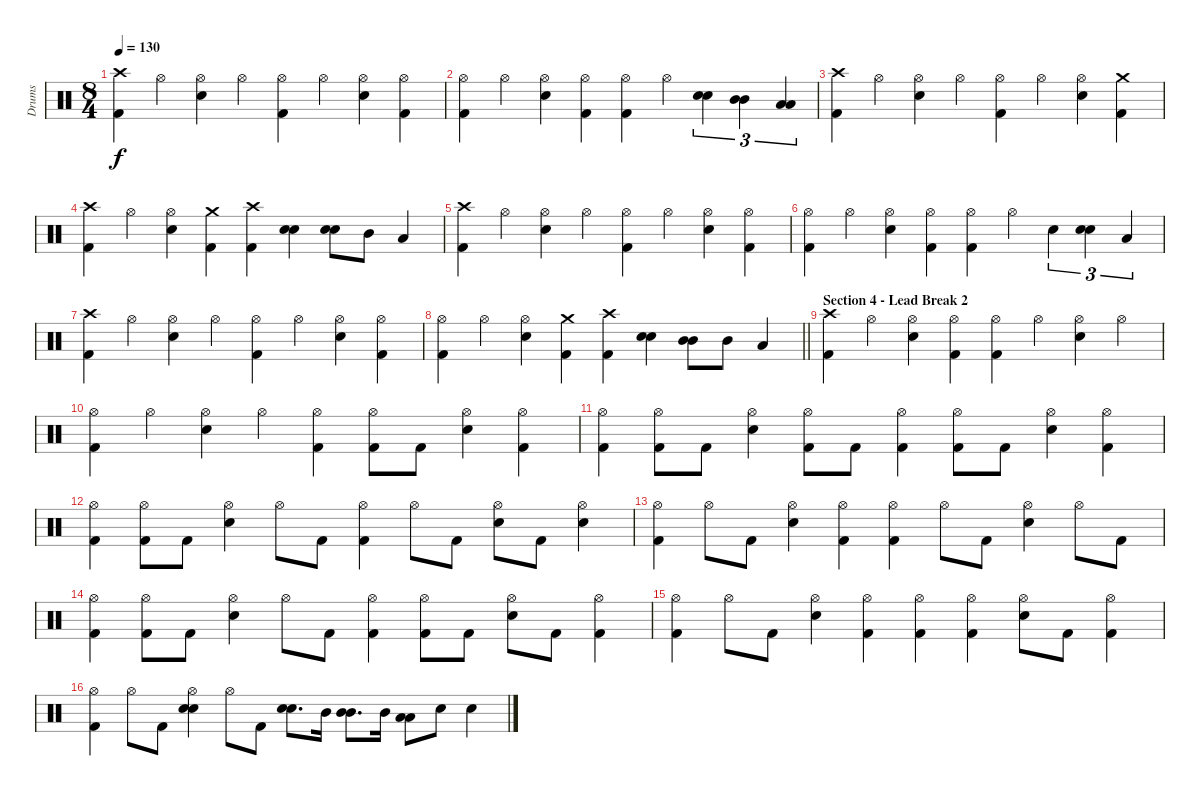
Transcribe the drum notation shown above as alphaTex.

\track ("Drums" "Drums") {instrument percussion}
\staff {score}
\articulation defaults
\ts (8 4)
\tempo 130
\clef neutral
\ks c
("Crash high (hit)" "Kick (hit) 2").4{dy f} "Hi-Hat (open)".4 ("Hi-Hat (open)" "Electric Snare (hit)").4 "Hi-Hat (open)".4 ("Hi-Hat (open)" "Kick (hit) 2").4 "Hi-Hat (open)".4 ("Hi-Hat (open)" "Electric Snare (hit)").4 ("Hi-Hat (open)" "Kick (hit) 2").4 |
("Hi-Hat (open)" "Kick (hit) 2").4 "Hi-Hat (open)".4 ("Hi-Hat (open)" "Electric Snare (hit)").4 ("Hi-Hat (open)" "Kick (hit) 2").4 ("Hi-Hat (open)" "Kick (hit) 2").4 "Hi-Hat (open)".4 ("Electric Snare (hit)" "Electric Snare (hit)").4{tu (3 2) bu 60} ("Mid Tom (hit)" "Mid Tom (hit)").4{tu (3 2) bu 60} ("Low Tom (hit)" "Low Tom (hit)").4{tu (3 2) bu 60} |
("Crash high (hit)" "Kick (hit) 2").4 "Hi-Hat (open)".4 ("Hi-Hat (open)" "Electric Snare (hit)").4 "Hi-Hat (open)".4 ("Hi-Hat (open)" "Kick (hit) 2").4 "Hi-Hat (open)".4 ("Hi-Hat (open)" "Electric Snare (hit)").4 ("Crash medium (hit)" "Kick (hit) 2").4 |
("Crash high (hit)" "Kick (hit) 2").4 "Hi-Hat (open)".4 ("Hi-Hat (open)" "Electric Snare (hit)").4 ("Crash medium (hit)" "Kick (hit) 2").4 ("Crash high (hit)" "Kick (hit) 2").4 ("Electric Snare (hit)" "Electric Snare (hit)").4{bu 60} ("Electric Snare (hit)" "Electric Snare (hit)").8{bu 60} "Mid Tom (hit)".8 "Low Tom (hit)".4 |
("Crash high (hit)" "Kick (hit) 2").4 "Hi-Hat (open)".4 ("Hi-Hat (open)" "Electric Snare (hit)").4 "Hi-Hat (open)".4 ("Hi-Hat (open)" "Kick (hit) 2").4 "Hi-Hat (open)".4 ("Hi-Hat (open)" "Electric Snare (hit)").4 ("Hi-Hat (open)" "Kick (hit) 2").4 |
("Hi-Hat (open)" "Kick (hit) 2").4 "Hi-Hat (open)".4 ("Hi-Hat (open)" "Electric Snare (hit)").4 ("Hi-Hat (open)" "Kick (hit) 2").4 ("Hi-Hat (open)" "Kick (hit) 2").4 "Hi-Hat (open)".4 "Electric Snare (hit)".4{tu (3 2)} ("Electric Snare (hit)" "Electric Snare (hit)").4{tu (3 2) bu 60} "Low Tom (hit)".4{tu (3 2)} |
("Crash high (hit)" "Kick (hit) 2").4 "Hi-Hat (open)".4 ("Hi-Hat (open)" "Electric Snare (hit)").4 "Hi-Hat (open)".4 ("Hi-Hat (open)" "Kick (hit) 2").4 "Hi-Hat (open)".4 ("Hi-Hat (open)" "Electric Snare (hit)").4 ("Hi-Hat (open)" "Kick (hit) 2").4 |
\barLineRight lightlight
("Hi-Hat (open)" "Kick (hit) 2").4 "Hi-Hat (open)".4 ("Hi-Hat (open)" "Electric Snare (hit)").4 ("Crash medium (hit)" "Kick (hit) 2").4 ("Crash high (hit)" "Kick (hit) 2").4 ("Electric Snare (hit)" "Electric Snare (hit)").4{bu 60} ("Mid Tom (hit)" "Mid Tom (hit)").8{bu 60} "Mid Tom (hit)".8 "Low Tom (hit)".4 |
\section ("" "Section 4 - Lead Break 2")
("Crash high (hit)" "Kick (hit) 2").4 "Hi-Hat (open)".4 ("Hi-Hat (open)" "Electric Snare (hit)").4 ("Hi-Hat (open)" "Kick (hit) 2").4 ("Hi-Hat (open)" "Kick (hit) 2").4 "Hi-Hat (open)".4 ("Hi-Hat (open)" "Electric Snare (hit)").4 "Hi-Hat (open)".4 |
("Hi-Hat (open)" "Kick (hit) 2").4 "Hi-Hat (open)".4 ("Hi-Hat (open)" "Electric Snare (hit)").4 "Hi-Hat (open)".4 ("Hi-Hat (open)" "Kick (hit) 2").4 ("Hi-Hat (open)" "Kick (hit) 2").8 "Kick (hit) 2".8 ("Hi-Hat (open)" "Electric Snare (hit)").4 ("Hi-Hat (open)" "Kick (hit) 2").4 |
("Hi-Hat (open)" "Kick (hit) 2").4 ("Hi-Hat (open)" "Kick (hit) 2").8 "Kick (hit) 2".8 ("Hi-Hat (open)" "Electric Snare (hit)").4 ("Hi-Hat (open)" "Kick (hit) 2").8 "Kick (hit) 2".8 ("Hi-Hat (open)" "Kick (hit) 2").4 ("Hi-Hat (open)" "Kick (hit) 2").8 "Kick (hit) 2".8 ("Hi-Hat (open)" "Electric Snare (hit)").4 ("Hi-Hat (open)" "Kick (hit) 2").4 |
("Hi-Hat (open)" "Kick (hit) 2").4 ("Hi-Hat (open)" "Kick (hit) 2").8 "Kick (hit) 2".8 ("Hi-Hat (open)" "Electric Snare (hit)").4 "Hi-Hat (open)".8 "Kick (hit) 2".8 ("Hi-Hat (open)" "Kick (hit) 2").4 "Hi-Hat (open)".8 "Kick (hit) 2".8 ("Hi-Hat (open)" "Electric Snare (hit)").8 "Kick (hit) 2".8 ("Hi-Hat (open)" "Electric Snare (hit)").4 |
("Hi-Hat (open)" "Kick (hit) 2").4 "Hi-Hat (open)".8 "Kick (hit) 2".8 ("Hi-Hat (open)" "Electric Snare (hit)").4 ("Hi-Hat (open)" "Kick (hit) 2").4 ("Hi-Hat (open)" "Kick (hit) 2").4 "Hi-Hat (open)".8 "Kick (hit) 2".8 ("Hi-Hat (open)" "Electric Snare (hit)").4 "Hi-Hat (open)".8 "Kick (hit) 2".8 |
("Hi-Hat (open)" "Kick (hit) 2").4 ("Hi-Hat (open)" "Kick (hit) 2").8 "Kick (hit) 2".8 ("Hi-Hat (open)" "Electric Snare (hit)").4 "Hi-Hat (open)".8 "Kick (hit) 2".8 ("Hi-Hat (open)" "Kick (hit) 2").4 ("Hi-Hat (open)" "Kick (hit) 2").8 "Kick (hit) 2".8 ("Hi-Hat (open)" "Electric Snare (hit)").8 "Kick (hit) 2".8 ("Hi-Hat (open)" "Kick (hit) 2").4 |
("Hi-Hat (open)" "Kick (hit) 2").4 "Hi-Hat (open)".8 "Kick (hit) 2".8 ("Hi-Hat (open)" "Electric Snare (hit)").4 ("Hi-Hat (open)" "Kick (hit) 2").4 ("Hi-Hat (open)" "Kick (hit) 2").4 ("Hi-Hat (open)" "Kick (hit) 2").4 ("Hi-Hat (open)" "Electric Snare (hit)").8 "Kick (hit) 2".8 ("Hi-Hat (open)" "Kick (hit) 2").4 |
("Hi-Hat (open)" "Kick (hit) 2").4 "Hi-Hat (open)".8 "Kick (hit) 2".8 ("Hi-Hat (open)" "Electric Snare (hit)" "Electric Snare (hit)").4{bu 60} "Hi-Hat (open)".8 "Kick (hit) 2".8 ("Electric Snare (hit)" "Electric Snare (hit)").8{d bu 60} "Mid Tom (hit)".16 ("Mid Tom (hit)" "Mid Tom (hit)").8{d bu 60} "Mid Tom (hit)".16 ("Low Tom (hit)" "Low Tom (hit)").8{bu 60} "Electric Snare (hit)".8 "Electric Snare (hit)".4
